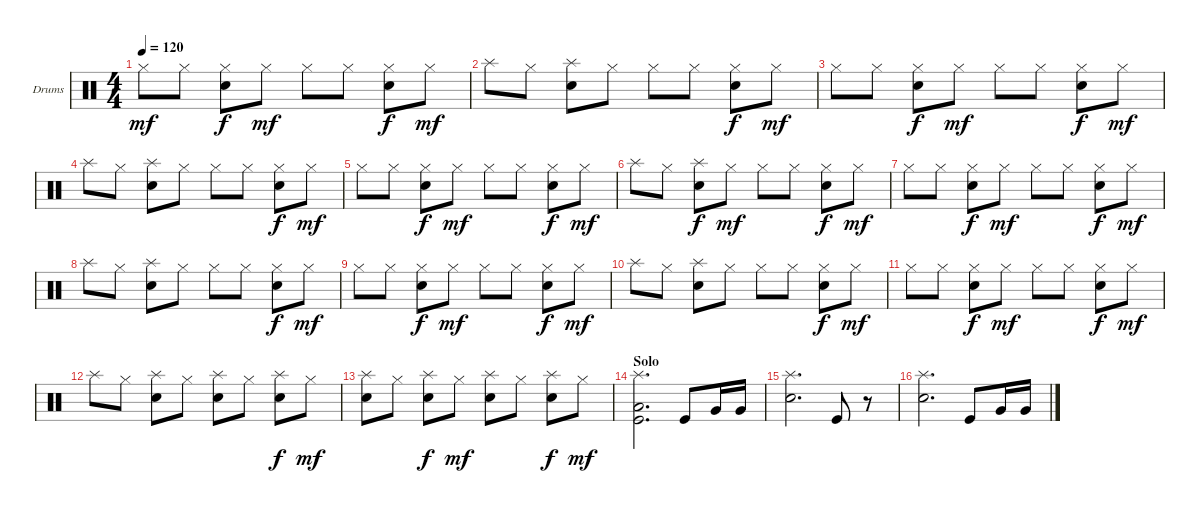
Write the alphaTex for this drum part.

\bracketExtendMode groupsimilarinstruments
\firstSystemTrackNameOrientation horizontal
\otherSystemsTrackNameOrientation horizontal
\track ("Drumkit" "Drums") {instrument percussion}
\staff {score}
\articulation defaults
\ts (4 4)
\tempo 120
\clef neutral
\ks c "Hi-Hat (closed)".8{dy mf} "Hi-Hat (closed)".8
("Hi-Hat (closed)" "Snare (hit) 2").8{dy f} "Hi-Hat (closed)".8{dy mf} "Hi-Hat (closed)".8 "Hi-Hat (closed)".8 ("Hi-Hat (closed)" "Snare (hit) 2").8{dy f} "Hi-Hat (closed)".8{dy mf} |
"Splash (hit)".8 "Hi-Hat (closed)".8 ("Snare (hit) 2" "Splash (hit)").8 "Hi-Hat (closed)".8 "Hi-Hat (closed)".8 "Hi-Hat (closed)".8 ("Hi-Hat (closed)" "Snare (hit) 2").8{dy f} "Hi-Hat (closed)".8{dy mf} |
"Hi-Hat (closed)".8 "Hi-Hat (closed)".8 ("Hi-Hat (closed)" "Snare (hit) 2").8{dy f} "Hi-Hat (closed)".8{dy mf} "Hi-Hat (closed)".8 "Hi-Hat (closed)".8 ("Hi-Hat (closed)" "Snare (hit) 2").8{dy f} "Hi-Hat (closed)".8{dy mf} |
"Splash (hit)".8 "Hi-Hat (closed)".8 ("Snare (hit) 2" "Splash (hit)").8 "Hi-Hat (closed)".8 "Hi-Hat (closed)".8 "Hi-Hat (closed)".8 ("Hi-Hat (closed)" "Snare (hit) 2").8{dy f} "Hi-Hat (closed)".8{dy mf} |
"Hi-Hat (closed)".8 "Hi-Hat (closed)".8 ("Hi-Hat (closed)" "Snare (hit) 2").8{dy f} "Hi-Hat (closed)".8{dy mf} "Hi-Hat (closed)".8 "Hi-Hat (closed)".8 ("Hi-Hat (closed)" "Snare (hit) 2").8{dy f} "Hi-Hat (closed)".8{dy mf} |
"Splash (hit)".8 "Hi-Hat (closed)".8 ("Snare (hit) 2" "Splash (hit)").8{dy f} "Hi-Hat (closed)".8{dy mf} "Hi-Hat (closed)".8 "Hi-Hat (closed)".8 ("Hi-Hat (closed)" "Snare (hit) 2").8{dy f} "Hi-Hat (closed)".8{dy mf} |
"Hi-Hat (closed)".8 "Hi-Hat (closed)".8 ("Hi-Hat (closed)" "Snare (hit) 2").8{dy f} "Hi-Hat (closed)".8{dy mf} "Hi-Hat (closed)".8 "Hi-Hat (closed)".8 ("Hi-Hat (closed)" "Snare (hit) 2").8{dy f} "Hi-Hat (closed)".8{dy mf} |
"Splash (hit)".8 "Hi-Hat (closed)".8 ("Snare (hit) 2" "Splash (hit)").8 "Hi-Hat (closed)".8 "Hi-Hat (closed)".8 "Hi-Hat (closed)".8 ("Hi-Hat (closed)" "Snare (hit) 2").8{dy f} "Hi-Hat (closed)".8{dy mf} |
"Hi-Hat (closed)".8 "Hi-Hat (closed)".8 ("Hi-Hat (closed)" "Snare (hit) 2").8{dy f} "Hi-Hat (closed)".8{dy mf} "Hi-Hat (closed)".8 "Hi-Hat (closed)".8 ("Hi-Hat (closed)" "Snare (hit) 2").8{dy f} "Hi-Hat (closed)".8{dy mf} |
"Splash (hit)".8 "Hi-Hat (closed)".8 ("Snare (hit) 2" "Splash (hit)").8 "Hi-Hat (closed)".8 "Hi-Hat (closed)".8 "Hi-Hat (closed)".8 ("Hi-Hat (closed)" "Snare (hit) 2").8{dy f} "Hi-Hat (closed)".8{dy mf} |
"Hi-Hat (closed)".8 "Hi-Hat (closed)".8 ("Hi-Hat (closed)" "Snare (hit) 2").8{dy f} "Hi-Hat (closed)".8{dy mf} "Hi-Hat (closed)".8 "Hi-Hat (closed)".8 ("Hi-Hat (closed)" "Snare (hit) 2").8{dy f} "Hi-Hat (closed)".8{dy mf} |
"Splash (hit)".8 "Hi-Hat (closed)".8 ("Snare (hit) 2" "Splash (hit)").8 "Hi-Hat (closed)".8 ("Snare (hit) 2" "Splash (hit)").8 "Hi-Hat (closed)".8 ("Snare (hit) 2" "Splash (hit)").8{dy f} "Hi-Hat (closed)".8{dy mf} |
("Snare (hit) 2" "Splash (hit)").8 "Hi-Hat (closed)".8 ("Snare (hit) 2" "Splash (hit)").8{dy f} "Hi-Hat (closed)".8{dy mf} ("Snare (hit) 2" "Splash (hit)").8 "Hi-Hat (closed)".8 ("Snare (hit) 2" "Splash (hit)").8{dy f} "Hi-Hat (closed)".8{dy mf} |
\section ("" "Solo")
("Kick (hit)" "Low Tom (hit)" "Splash (hit)").2{d} "Kick (hit)".8 "Very Low Tom (hit)".16 "Very Low Tom (hit)".16 |
("Snare (hit) 2" "Splash (hit)").2{d} "Kick (hit)".8 r.8 |
("Snare (hit) 2" "Splash (hit)").2{d} "Kick (hit)".8 "Very Low Tom (hit)".16 "Very Low Tom (hit)".16
